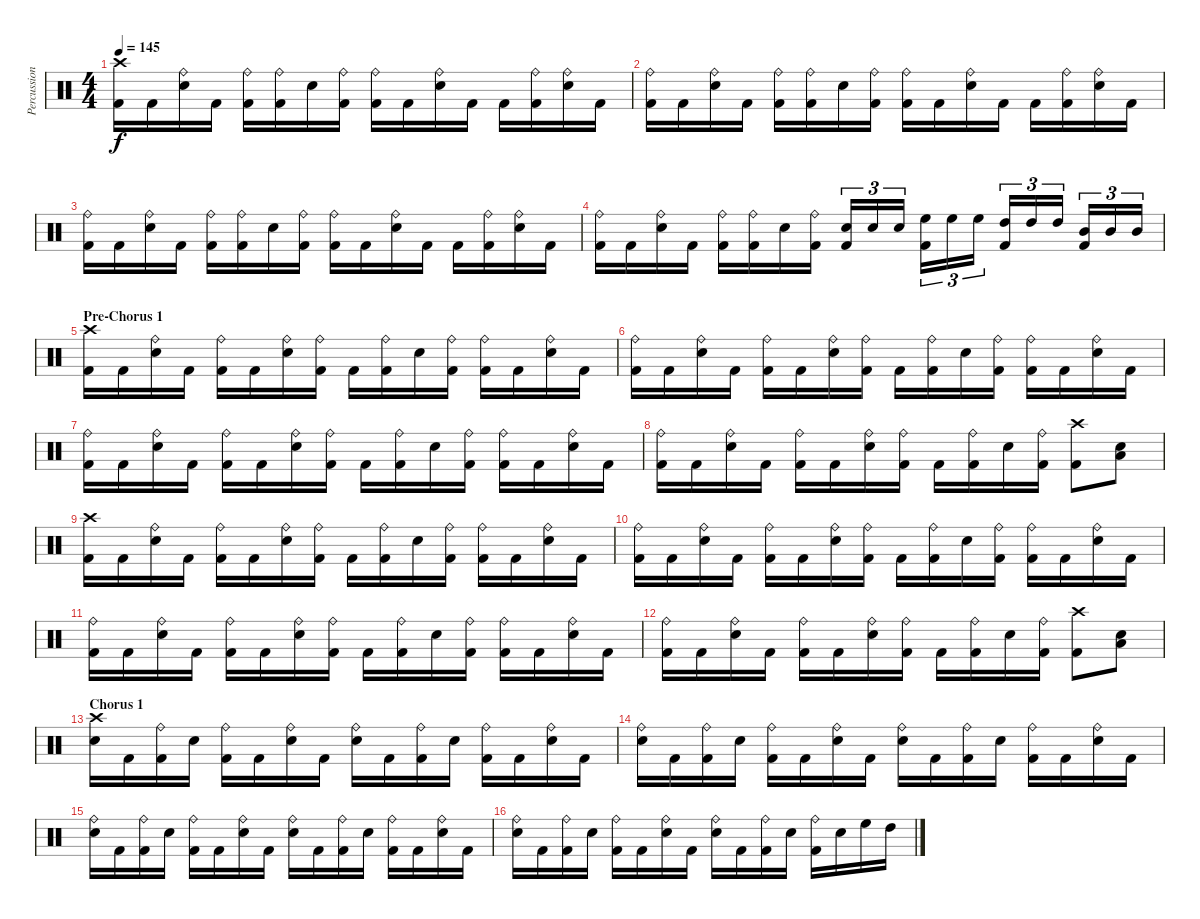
\track ("Percussion" "Percussion") {instrument percussion}
\staff {score}
\articulation defaults
\ts (4 4)
\tempo 145
\clef neutral
\ks c
("Kick (hit) 2" "Crash high (hit)").16{dy f} "Kick (hit) 2".16 ("Electric Snare (hit)" "Ride (bell)").16 "Kick (hit) 2".16 ("Kick (hit) 2" "Ride (bell)").16 ("Kick (hit) 2" "Ride (bell)").16 "Electric Snare (hit)".16 ("Kick (hit) 2" "Ride (bell)").16 ("Kick (hit) 2" "Ride (bell)").16 "Kick (hit) 2".16 ("Electric Snare (hit)" "Ride (bell)").16 "Kick (hit) 2".16 "Kick (hit) 2".16 ("Kick (hit) 2" "Ride (bell)").16 ("Electric Snare (hit)" "Ride (bell)").16 "Kick (hit) 2".16 |
("Kick (hit) 2" "Ride (bell)").16 "Kick (hit) 2".16 ("Electric Snare (hit)" "Ride (bell)").16 "Kick (hit) 2".16 ("Kick (hit) 2" "Ride (bell)").16 ("Kick (hit) 2" "Ride (bell)").16 "Electric Snare (hit)".16 ("Kick (hit) 2" "Ride (bell)").16 ("Kick (hit) 2" "Ride (bell)").16 "Kick (hit) 2".16 ("Electric Snare (hit)" "Ride (bell)").16 "Kick (hit) 2".16 "Kick (hit) 2".16 ("Kick (hit) 2" "Ride (bell)").16 ("Electric Snare (hit)" "Ride (bell)").16 "Kick (hit) 2".16 |
("Kick (hit) 2" "Ride (bell)").16 "Kick (hit) 2".16 ("Electric Snare (hit)" "Ride (bell)").16 "Kick (hit) 2".16 ("Kick (hit) 2" "Ride (bell)").16 ("Kick (hit) 2" "Ride (bell)").16 "Electric Snare (hit)".16 ("Kick (hit) 2" "Ride (bell)").16 ("Kick (hit) 2" "Ride (bell)").16 "Kick (hit) 2".16 ("Electric Snare (hit)" "Ride (bell)").16 "Kick (hit) 2".16 "Kick (hit) 2".16 ("Kick (hit) 2" "Ride (bell)").16 ("Electric Snare (hit)" "Ride (bell)").16 "Kick (hit) 2".16 |
("Kick (hit) 2" "Ride (bell)").16 "Kick (hit) 2".16 ("Electric Snare (hit)" "Ride (bell)").16 "Kick (hit) 2".16 ("Kick (hit) 2" "Ride (bell)").16 ("Kick (hit) 2" "Ride (bell)").16 "Electric Snare (hit)".16 ("Kick (hit) 2" "Ride (bell)").16 ("Electric Snare (hit)" "Kick (hit) 2").16{tu (3 2)} "Electric Snare (hit)".16{tu (3 2)} "Electric Snare (hit)".16{tu (3 2)} ("High Floor Tom (hit)" "Kick (hit) 2").16{tu (3 2)} "High Floor Tom (hit)".16{tu (3 2)} "High Floor Tom (hit)".16{tu (3 2)} ("High Tom (hit)" "Kick (hit) 2").16{tu (3 2)} "High Tom (hit)".16{tu (3 2)} "High Tom (hit)".16{tu (3 2)} ("Mid Tom (hit)" "Kick (hit) 2").16{tu (3 2)} "Mid Tom (hit)".16{tu (3 2)} "Mid Tom (hit)".16{tu (3 2)} |
\section ("" "Pre-Chorus 1")
("Kick (hit) 2" "Crash high (hit)").16 "Kick (hit) 2".16 ("Electric Snare (hit)" "Ride (bell)").16 "Kick (hit) 2".16 ("Kick (hit) 2" "Ride (bell)").16 "Kick (hit) 2".16 ("Electric Snare (hit)" "Ride (bell)").16 ("Kick (hit) 2" "Ride (bell)").16 "Kick (hit) 2".16 ("Kick (hit) 2" "Ride (bell)").16 "Electric Snare (hit)".16 ("Kick (hit) 2" "Ride (bell)").16 ("Kick (hit) 2" "Ride (bell)").16 "Kick (hit) 2".16 ("Electric Snare (hit)" "Ride (bell)").16 "Kick (hit) 2".16 |
("Kick (hit) 2" "Ride (bell)").16 "Kick (hit) 2".16 ("Electric Snare (hit)" "Ride (bell)").16 "Kick (hit) 2".16 ("Kick (hit) 2" "Ride (bell)").16 "Kick (hit) 2".16 ("Electric Snare (hit)" "Ride (bell)").16 ("Kick (hit) 2" "Ride (bell)").16 "Kick (hit) 2".16 ("Kick (hit) 2" "Ride (bell)").16 "Electric Snare (hit)".16 ("Kick (hit) 2" "Ride (bell)").16 ("Kick (hit) 2" "Ride (bell)").16 "Kick (hit) 2".16 ("Electric Snare (hit)" "Ride (bell)").16 "Kick (hit) 2".16 |
("Kick (hit) 2" "Ride (bell)").16 "Kick (hit) 2".16 ("Electric Snare (hit)" "Ride (bell)").16 "Kick (hit) 2".16 ("Kick (hit) 2" "Ride (bell)").16 "Kick (hit) 2".16 ("Electric Snare (hit)" "Ride (bell)").16 ("Kick (hit) 2" "Ride (bell)").16 "Kick (hit) 2".16 ("Kick (hit) 2" "Ride (bell)").16 "Electric Snare (hit)".16 ("Kick (hit) 2" "Ride (bell)").16 ("Kick (hit) 2" "Ride (bell)").16 "Kick (hit) 2".16 ("Electric Snare (hit)" "Ride (bell)").16 "Kick (hit) 2".16 |
("Kick (hit) 2" "Ride (bell)").16 "Kick (hit) 2".16 ("Electric Snare (hit)" "Ride (bell)").16 "Kick (hit) 2".16 ("Kick (hit) 2" "Ride (bell)").16 "Kick (hit) 2".16 ("Electric Snare (hit)" "Ride (bell)").16 ("Kick (hit) 2" "Ride (bell)").16 "Kick (hit) 2".16 ("Kick (hit) 2" "Ride (bell)").16 "Electric Snare (hit)".16 ("Kick (hit) 2" "Ride (bell)").16 ("Kick (hit) 2" "Crash high (hit)").8 ("Electric Snare (hit)" "Low Tom (hit)").8 |
("Kick (hit) 2" "Crash high (hit)").16 "Kick (hit) 2".16 ("Electric Snare (hit)" "Ride (bell)").16 "Kick (hit) 2".16 ("Kick (hit) 2" "Ride (bell)").16 "Kick (hit) 2".16 ("Electric Snare (hit)" "Ride (bell)").16 ("Kick (hit) 2" "Ride (bell)").16 "Kick (hit) 2".16 ("Kick (hit) 2" "Ride (bell)").16 "Electric Snare (hit)".16 ("Kick (hit) 2" "Ride (bell)").16 ("Kick (hit) 2" "Ride (bell)").16 "Kick (hit) 2".16 ("Electric Snare (hit)" "Ride (bell)").16 "Kick (hit) 2".16 |
("Kick (hit) 2" "Ride (bell)").16 "Kick (hit) 2".16 ("Electric Snare (hit)" "Ride (bell)").16 "Kick (hit) 2".16 ("Kick (hit) 2" "Ride (bell)").16 "Kick (hit) 2".16 ("Electric Snare (hit)" "Ride (bell)").16 ("Kick (hit) 2" "Ride (bell)").16 "Kick (hit) 2".16 ("Kick (hit) 2" "Ride (bell)").16 "Electric Snare (hit)".16 ("Kick (hit) 2" "Ride (bell)").16 ("Kick (hit) 2" "Ride (bell)").16 "Kick (hit) 2".16 ("Electric Snare (hit)" "Ride (bell)").16 "Kick (hit) 2".16 |
("Kick (hit) 2" "Ride (bell)").16 "Kick (hit) 2".16 ("Electric Snare (hit)" "Ride (bell)").16 "Kick (hit) 2".16 ("Kick (hit) 2" "Ride (bell)").16 "Kick (hit) 2".16 ("Electric Snare (hit)" "Ride (bell)").16 ("Kick (hit) 2" "Ride (bell)").16 "Kick (hit) 2".16 ("Kick (hit) 2" "Ride (bell)").16 "Electric Snare (hit)".16 ("Kick (hit) 2" "Ride (bell)").16 ("Kick (hit) 2" "Ride (bell)").16 "Kick (hit) 2".16 ("Electric Snare (hit)" "Ride (bell)").16 "Kick (hit) 2".16 |
("Kick (hit) 2" "Ride (bell)").16 "Kick (hit) 2".16 ("Electric Snare (hit)" "Ride (bell)").16 "Kick (hit) 2".16 ("Kick (hit) 2" "Ride (bell)").16 "Kick (hit) 2".16 ("Electric Snare (hit)" "Ride (bell)").16 ("Kick (hit) 2" "Ride (bell)").16 "Kick (hit) 2".16 ("Kick (hit) 2" "Ride (bell)").16 "Electric Snare (hit)".16 ("Kick (hit) 2" "Ride (bell)").16 ("Kick (hit) 2" "Crash high (hit)").8 ("Electric Snare (hit)" "Low Tom (hit)").8 |
\section ("" "Chorus 1")
("Electric Snare (hit)" "Crash high (hit)").16 "Kick (hit) 2".16 ("Kick (hit) 2" "Ride (bell)").16 "Electric Snare (hit)".16 ("Kick (hit) 2" "Ride (bell)").16 "Kick (hit) 2".16 ("Electric Snare (hit)" "Ride (bell)").16 "Kick (hit) 2".16 ("Electric Snare (hit)" "Ride (bell)").16 "Kick (hit) 2".16 ("Kick (hit) 2" "Ride (bell)").16 "Electric Snare (hit)".16 ("Kick (hit) 2" "Ride (bell)").16 "Kick (hit) 2".16 ("Electric Snare (hit)" "Ride (bell)").16 "Kick (hit) 2".16 |
("Electric Snare (hit)" "Ride (bell)").16 "Kick (hit) 2".16 ("Kick (hit) 2" "Ride (bell)").16 "Electric Snare (hit)".16 ("Kick (hit) 2" "Ride (bell)").16 "Kick (hit) 2".16 ("Electric Snare (hit)" "Ride (bell)").16 "Kick (hit) 2".16 ("Electric Snare (hit)" "Ride (bell)").16 "Kick (hit) 2".16 ("Kick (hit) 2" "Ride (bell)").16 "Electric Snare (hit)".16 ("Kick (hit) 2" "Ride (bell)").16 "Kick (hit) 2".16 ("Electric Snare (hit)" "Ride (bell)").16 "Kick (hit) 2".16 |
("Electric Snare (hit)" "Ride (bell)").16 "Kick (hit) 2".16 ("Kick (hit) 2" "Ride (bell)").16 "Electric Snare (hit)".16 ("Kick (hit) 2" "Ride (bell)").16 "Kick (hit) 2".16 ("Electric Snare (hit)" "Ride (bell)").16 "Kick (hit) 2".16 ("Electric Snare (hit)" "Ride (bell)").16 "Kick (hit) 2".16 ("Kick (hit) 2" "Ride (bell)").16 "Electric Snare (hit)".16 ("Kick (hit) 2" "Ride (bell)").16 "Kick (hit) 2".16 ("Electric Snare (hit)" "Ride (bell)").16 "Kick (hit) 2".16 |
("Electric Snare (hit)" "Ride (bell)").16 "Kick (hit) 2".16 ("Kick (hit) 2" "Ride (bell)").16 "Electric Snare (hit)".16 ("Kick (hit) 2" "Ride (bell)").16 "Kick (hit) 2".16 ("Electric Snare (hit)" "Ride (bell)").16 "Kick (hit) 2".16 ("Electric Snare (hit)" "Ride (bell)").16 "Kick (hit) 2".16 ("Kick (hit) 2" "Ride (bell)").16 "Electric Snare (hit)".16 ("Kick (hit) 2" "Ride (bell)").16 "Electric Snare (hit)".16 "High Floor Tom (hit)".16 "High Tom (hit)".16
